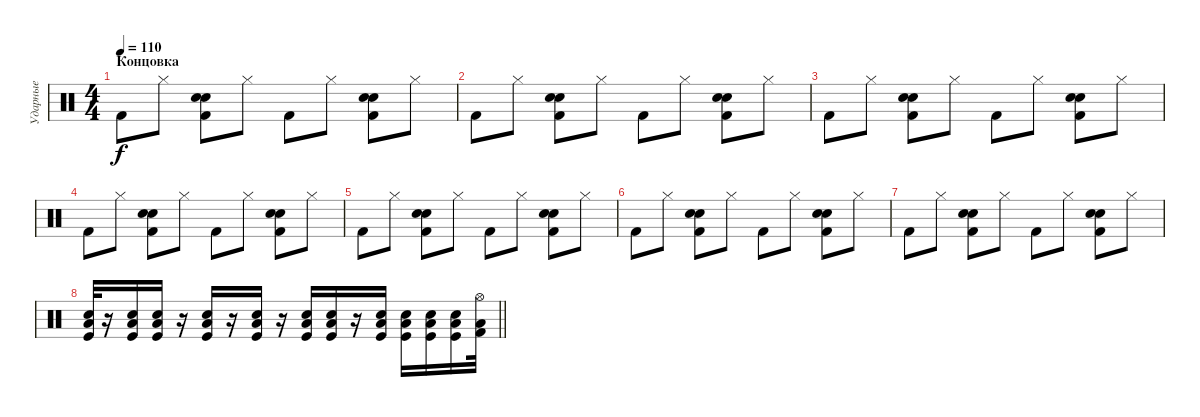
\track ("Ударные" "Ударные") {instrument percussion}
\staff {score}
\articulation defaults
\ts (4 4)
\section ("" "Концовка")
\tempo 110
\clef neutral
\ks c "Kick (hit) 2".8{dy f} "Hi-Hat (closed)".8
("Hand Clap (hit)" "Kick (hit) 2" "Electric Snare (hit)").8 "Hi-Hat (closed)".8 "Kick (hit) 2".8 "Hi-Hat (closed)".8 ("Hand Clap (hit)" "Kick (hit) 2" "Electric Snare (hit)").8 "Hi-Hat (closed)".8 |
"Kick (hit) 2".8 "Hi-Hat (closed)".8 ("Hand Clap (hit)" "Kick (hit) 2" "Electric Snare (hit)").8 "Hi-Hat (closed)".8 "Kick (hit) 2".8 "Hi-Hat (closed)".8 ("Hand Clap (hit)" "Kick (hit) 2" "Electric Snare (hit)").8 "Hi-Hat (closed)".8 |
"Kick (hit) 2".8 "Hi-Hat (closed)".8 ("Hand Clap (hit)" "Kick (hit) 2" "Electric Snare (hit)").8 "Hi-Hat (closed)".8 "Kick (hit) 2".8 "Hi-Hat (closed)".8 ("Hand Clap (hit)" "Kick (hit) 2" "Electric Snare (hit)").8 "Hi-Hat (closed)".8 |
"Kick (hit) 2".8 "Hi-Hat (closed)".8 ("Hand Clap (hit)" "Kick (hit) 2" "Electric Snare (hit)").8 "Hi-Hat (closed)".8 "Kick (hit) 2".8 "Hi-Hat (closed)".8 ("Hand Clap (hit)" "Kick (hit) 2" "Electric Snare (hit)").8 "Hi-Hat (closed)".8 |
"Kick (hit) 2".8 "Hi-Hat (closed)".8 ("Hand Clap (hit)" "Kick (hit) 2" "Electric Snare (hit)").8 "Hi-Hat (closed)".8 "Kick (hit) 2".8 "Hi-Hat (closed)".8 ("Hand Clap (hit)" "Kick (hit) 2" "Electric Snare (hit)").8 "Hi-Hat (closed)".8 |
"Kick (hit) 2".8 "Hi-Hat (closed)".8 ("Hand Clap (hit)" "Kick (hit) 2" "Electric Snare (hit)").8 "Hi-Hat (closed)".8 "Kick (hit) 2".8 "Hi-Hat (closed)".8 ("Hand Clap (hit)" "Kick (hit) 2" "Electric Snare (hit)").8 "Hi-Hat (closed)".8 |
"Kick (hit) 2".8 "Hi-Hat (closed)".8 ("Hand Clap (hit)" "Kick (hit) 2" "Electric Snare (hit)").8 "Hi-Hat (closed)".8 "Kick (hit) 2".8 "Hi-Hat (closed)".8 ("Hand Clap (hit)" "Kick (hit) 2" "Electric Snare (hit)").8 "Hi-Hat (closed)".8 |
\barLineRight lightlight
("Low Floor Tom (hit)" "Kick (hit)" "Electric Snare (hit)").32 r.16 ("Low Floor Tom (hit)" "Kick (hit)" "Electric Snare (hit)").16 ("Low Floor Tom (hit)" "Kick (hit)" "Electric Snare (hit)").16 r.16 ("Low Floor Tom (hit)" "Kick (hit)" "Electric Snare (hit)").16 r.16 ("Low Floor Tom (hit)" "Kick (hit)" "Electric Snare (hit)").16 r.16 ("Low Floor Tom (hit)" "Kick (hit)" "Electric Snare (hit)").16 ("Low Floor Tom (hit)" "Kick (hit)" "Electric Snare (hit)").16 r.16 ("Low Floor Tom (hit)" "Kick (hit)" "Electric Snare (hit)").16 ("Low Floor Tom (hit)" "Kick (hit)" "Electric Snare (hit)").16 ("Low Floor Tom (hit)" "Kick (hit)" "Electric Snare (hit)").16 ("Low Floor Tom (hit)" "Kick (hit)" "Electric Snare (hit)").16 ("Low Floor Tom (hit)" "Hi-Hat (open)" "Kick (hit) 2").32
